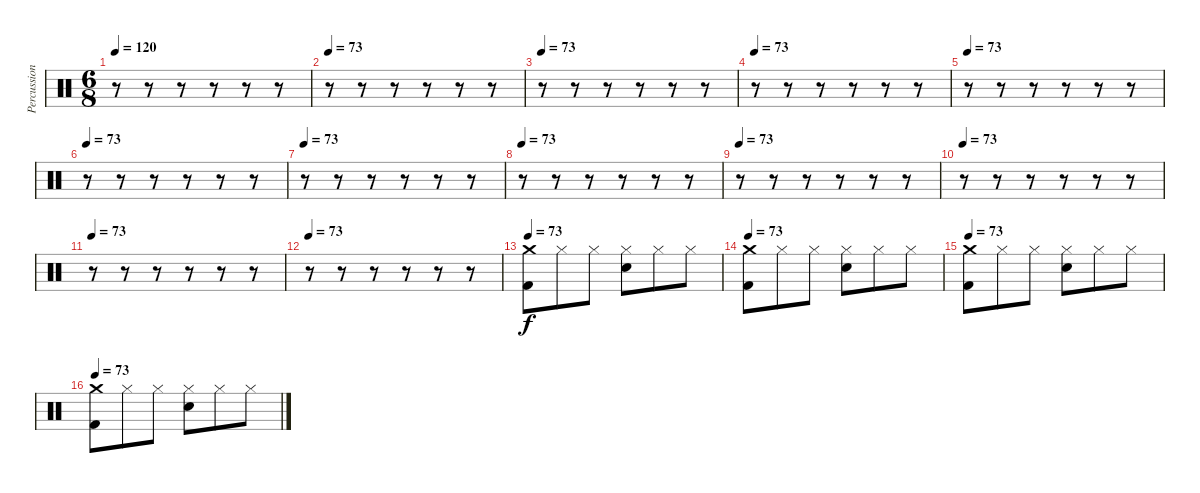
\track ("Percussion" "Percussion") {instrument percussion}
\staff {score}
\articulation defaults
\ts (6 8)
\tempo 120
\tempo 73
\tempo 120
\clef neutral
\ks c
r.8{dy f} r.8 r.8 r.8 r.8 r.8 |
\tempo 73
r.8 r.8 r.8 r.8 r.8 r.8 |
\tempo 73
r.8 r.8 r.8 r.8 r.8 r.8 |
\tempo 73
r.8 r.8 r.8 r.8 r.8 r.8 |
\tempo 73
r.8 r.8 r.8 r.8 r.8 r.8 |
\tempo 73
r.8 r.8 r.8 r.8 r.8 r.8 |
\tempo 73
r.8 r.8 r.8 r.8 r.8 r.8 |
\tempo 73
r.8 r.8 r.8 r.8 r.8 r.8 |
\tempo 73
r.8 r.8 r.8 r.8 r.8 r.8 |
\tempo 73
r.8 r.8 r.8 r.8 r.8 r.8 |
\tempo 73
r.8 r.8 r.8 r.8 r.8 r.8 |
\tempo 73
r.8 r.8 r.8 r.8 r.8 r.8 |
\tempo 73
("Crash medium (hit)" "Kick (hit) 2").8 "Hi-Hat (closed)".8 "Hi-Hat (closed)".8 ("Hi-Hat (closed)" "Snare (hit) 2").8 "Hi-Hat (closed)".8 "Hi-Hat (closed)".8 |
\tempo 73
("Crash medium (hit)" "Kick (hit) 2").8 "Hi-Hat (closed)".8 "Hi-Hat (closed)".8 ("Hi-Hat (closed)" "Snare (hit) 2").8 "Hi-Hat (closed)".8 "Hi-Hat (closed)".8 |
\tempo 73
("Crash medium (hit)" "Kick (hit) 2").8 "Hi-Hat (closed)".8 "Hi-Hat (closed)".8 ("Hi-Hat (closed)" "Snare (hit) 2").8 "Hi-Hat (closed)".8 "Hi-Hat (closed)".8 |
\tempo 73
("Crash medium (hit)" "Kick (hit) 2").8 "Hi-Hat (closed)".8 "Hi-Hat (closed)".8 ("Hi-Hat (closed)" "Snare (hit) 2").8 "Hi-Hat (closed)".8 "Hi-Hat (closed)".8
